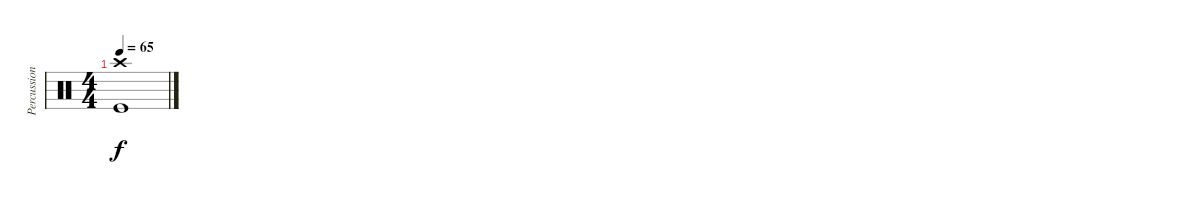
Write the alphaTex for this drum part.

\track ("Percussion" "Percussion") {instrument percussion}
\staff {score}
\articulation defaults
\ts (4 4)
\tempo 65
\clef neutral
\ks c
("Crash high (hit)" "Kick (hit)").1{dy f}
